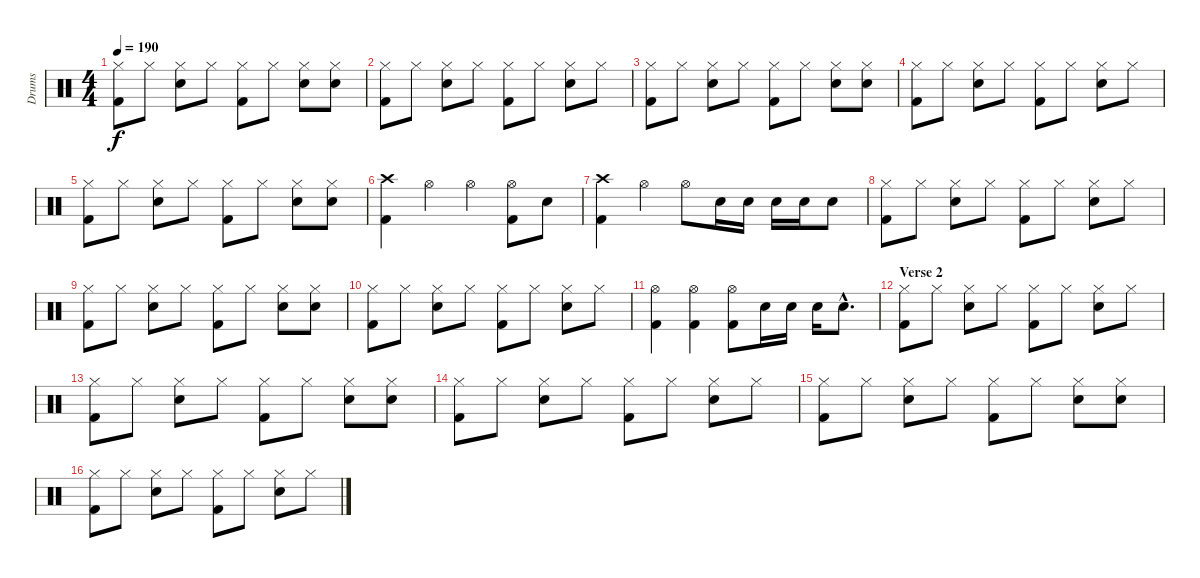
\track ("Drums" "Drums") {instrument percussion}
\staff {score}
\articulation defaults
\ts (4 4)
\tempo 190
\clef neutral
\ks c
("Kick (hit) 2" "Hi-Hat (closed)").8{dy f} "Hi-Hat (closed)".8 ("Snare (hit) 2" "Hi-Hat (closed)").8 "Hi-Hat (closed)".8 ("Kick (hit) 2" "Hi-Hat (closed)").8 "Hi-Hat (closed)".8 ("Snare (hit) 2" "Hi-Hat (closed)").8 ("Snare (hit) 2" "Hi-Hat (closed)").8 |
("Kick (hit) 2" "Hi-Hat (closed)").8 "Hi-Hat (closed)".8 ("Snare (hit) 2" "Hi-Hat (closed)").8 "Hi-Hat (closed)".8 ("Kick (hit) 2" "Hi-Hat (closed)").8 "Hi-Hat (closed)".8 ("Snare (hit) 2" "Hi-Hat (closed)").8 "Hi-Hat (closed)".8 |
("Kick (hit) 2" "Hi-Hat (closed)").8 "Hi-Hat (closed)".8 ("Snare (hit) 2" "Hi-Hat (closed)").8 "Hi-Hat (closed)".8 ("Kick (hit) 2" "Hi-Hat (closed)").8 "Hi-Hat (closed)".8 ("Snare (hit) 2" "Hi-Hat (closed)").8 ("Snare (hit) 2" "Hi-Hat (closed)").8 |
("Kick (hit) 2" "Hi-Hat (closed)").8 "Hi-Hat (closed)".8 ("Snare (hit) 2" "Hi-Hat (closed)").8 "Hi-Hat (closed)".8 ("Kick (hit) 2" "Hi-Hat (closed)").8 "Hi-Hat (closed)".8 ("Snare (hit) 2" "Hi-Hat (closed)").8 "Hi-Hat (closed)".8 |
("Kick (hit) 2" "Hi-Hat (closed)").8 "Hi-Hat (closed)".8 ("Snare (hit) 2" "Hi-Hat (closed)").8 "Hi-Hat (closed)".8 ("Kick (hit) 2" "Hi-Hat (closed)").8 "Hi-Hat (closed)".8 ("Snare (hit) 2" "Hi-Hat (closed)").8 ("Snare (hit) 2" "Hi-Hat (closed)").8 |
("Crash high (hit)" "Kick (hit) 2").4 "Hi-Hat (open)".4 "Hi-Hat (open)".4 ("Hi-Hat (open)" "Kick (hit) 2").8 "Snare (hit) 2".8 |
("Crash high (hit)" "Kick (hit) 2").4 "Hi-Hat (open)".4 "Hi-Hat (open)".8 "Snare (hit) 2".16 "Snare (hit) 2".16 "Snare (hit) 2".16 "Snare (hit) 2".16 "Snare (hit) 2".8 |
("Kick (hit) 2" "Hi-Hat (closed)").8 "Hi-Hat (closed)".8 ("Snare (hit) 2" "Hi-Hat (closed)").8 "Hi-Hat (closed)".8 ("Kick (hit) 2" "Hi-Hat (closed)").8 "Hi-Hat (closed)".8 ("Snare (hit) 2" "Hi-Hat (closed)").8 "Hi-Hat (closed)".8 |
("Kick (hit) 2" "Hi-Hat (closed)").8 "Hi-Hat (closed)".8 ("Snare (hit) 2" "Hi-Hat (closed)").8 "Hi-Hat (closed)".8 ("Kick (hit) 2" "Hi-Hat (closed)").8 "Hi-Hat (closed)".8 ("Snare (hit) 2" "Hi-Hat (closed)").8 ("Snare (hit) 2" "Hi-Hat (closed)").8 |
("Kick (hit) 2" "Hi-Hat (closed)").8 "Hi-Hat (closed)".8 ("Snare (hit) 2" "Hi-Hat (closed)").8 "Hi-Hat (closed)".8 ("Kick (hit) 2" "Hi-Hat (closed)").8 "Hi-Hat (closed)".8 ("Snare (hit) 2" "Hi-Hat (closed)").8 "Hi-Hat (closed)".8 |
("Kick (hit) 2" "Hi-Hat (open)").4 ("Kick (hit) 2" "Hi-Hat (open)").4 ("Kick (hit) 2" "Hi-Hat (open)").8 "Snare (hit) 2".16 "Snare (hit) 2".16 "Snare (hit) 2".16 "Snare (hit) 2"{hac}.8{d} |
\section ("" "Verse 2")
("Kick (hit) 2" "Hi-Hat (closed)").8 "Hi-Hat (closed)".8 ("Snare (hit) 2" "Hi-Hat (closed)").8 "Hi-Hat (closed)".8 ("Kick (hit) 2" "Hi-Hat (closed)").8 "Hi-Hat (closed)".8 ("Snare (hit) 2" "Hi-Hat (closed)").8 "Hi-Hat (closed)".8 |
("Kick (hit) 2" "Hi-Hat (closed)").8 "Hi-Hat (closed)".8 ("Snare (hit) 2" "Hi-Hat (closed)").8 "Hi-Hat (closed)".8 ("Kick (hit) 2" "Hi-Hat (closed)").8 "Hi-Hat (closed)".8 ("Snare (hit) 2" "Hi-Hat (closed)").8 ("Snare (hit) 2" "Hi-Hat (closed)").8 |
("Kick (hit) 2" "Hi-Hat (closed)").8 "Hi-Hat (closed)".8 ("Snare (hit) 2" "Hi-Hat (closed)").8 "Hi-Hat (closed)".8 ("Kick (hit) 2" "Hi-Hat (closed)").8 "Hi-Hat (closed)".8 ("Snare (hit) 2" "Hi-Hat (closed)").8 "Hi-Hat (closed)".8 |
("Kick (hit) 2" "Hi-Hat (closed)").8 "Hi-Hat (closed)".8 ("Snare (hit) 2" "Hi-Hat (closed)").8 "Hi-Hat (closed)".8 ("Kick (hit) 2" "Hi-Hat (closed)").8 "Hi-Hat (closed)".8 ("Snare (hit) 2" "Hi-Hat (closed)").8 ("Snare (hit) 2" "Hi-Hat (closed)").8 |
("Kick (hit) 2" "Hi-Hat (closed)").8 "Hi-Hat (closed)".8 ("Snare (hit) 2" "Hi-Hat (closed)").8 "Hi-Hat (closed)".8 ("Kick (hit) 2" "Hi-Hat (closed)").8 "Hi-Hat (closed)".8 ("Snare (hit) 2" "Hi-Hat (closed)").8 "Hi-Hat (closed)".8
